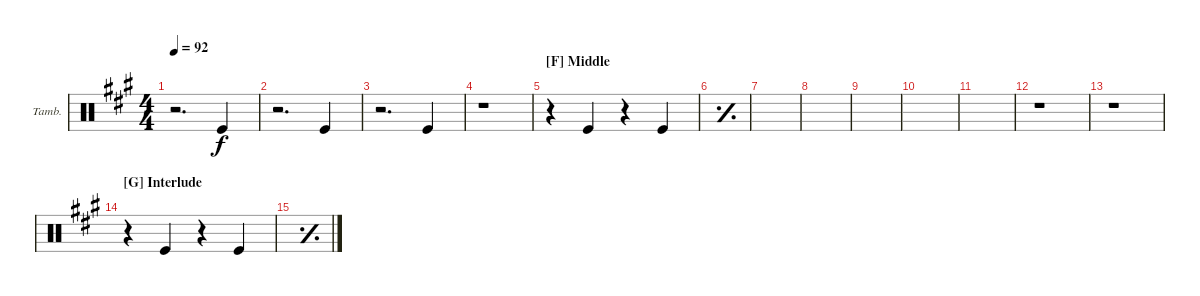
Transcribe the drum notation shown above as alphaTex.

\defaultSystemsLayout 4
\bracketExtendMode groupsimilarinstruments
\firstSystemTrackNameOrientation horizontal
\otherSystemsTrackNameOrientation horizontal
\track ("Tambourine" "Tamb.") {instrument percussion}
\staff {score}
\articulation defaults
\ts (4 4)
\tempo 92
\clef neutral
\ks a
r.2{d dy f} "Kick (hit)".4 |
r.2{d} "Kick (hit)".4 |
r.2{d} "Kick (hit)".4 |
r.1 |
\section ("F" "Middle")
r.4 "Kick (hit)".4 r.4 "Kick (hit)".4 |
\simile simple
|
|
|
|
|
|
\simile none
r.1 |
r.1 |
\section ("G" "Interlude")
r.4 "Kick (hit)".4 r.4 "Kick (hit)".4 |
\simile simple
